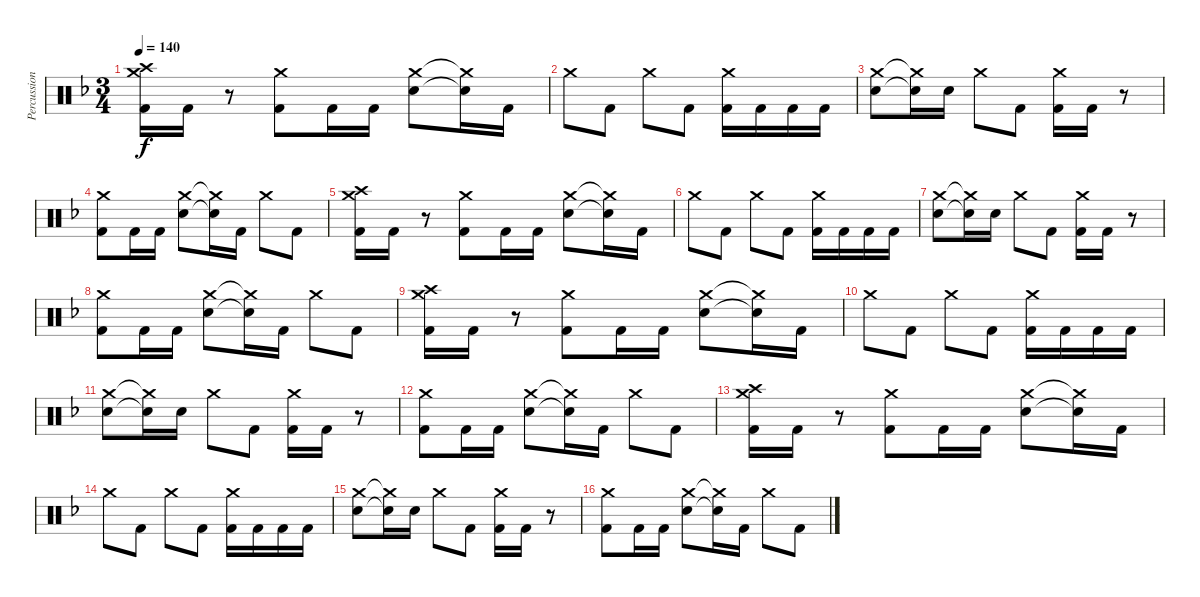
\track ("Percussion" "Percussion") {instrument percussion}
\staff {score}
\articulation defaults
\ts (3 4)
\tempo 140
\clef neutral
\ks f
("Crash medium (hit)" "Crash high (hit)" "Kick (hit) 2").16{dy f} "Kick (hit) 2".16 r.8 ("Crash medium (hit)" "Kick (hit) 2").8 "Kick (hit) 2".16 "Kick (hit) 2".16 ("Crash medium (hit)" "Electric Snare (hit)").8 ("Crash medium (hit)"{t} "Electric Snare (hit)"{t}).16 "Kick (hit) 2".16 |
"Crash medium (hit)".8 "Kick (hit) 2".8 "Crash medium (hit)".8 "Kick (hit) 2".8 ("Crash medium (hit)" "Kick (hit) 2").16 "Kick (hit) 2".16 "Kick (hit) 2".16 "Kick (hit) 2".16 |
("Crash medium (hit)" "Electric Snare (hit)").8 ("Crash medium (hit)"{t} "Electric Snare (hit)"{t}).16 "Electric Snare (hit)".16 "Crash medium (hit)".8 "Kick (hit) 2".8 ("Crash medium (hit)" "Kick (hit) 2").16 "Kick (hit) 2".16 r.8 |
("Crash medium (hit)" "Kick (hit) 2").8 "Kick (hit) 2".16 "Kick (hit) 2".16 ("Crash medium (hit)" "Electric Snare (hit)").8 ("Crash medium (hit)"{t} "Electric Snare (hit)"{t}).16 "Kick (hit) 2".16 "Crash medium (hit)".8 "Kick (hit) 2".8 |
("Crash medium (hit)" "Crash high (hit)" "Kick (hit) 2").16 "Kick (hit) 2".16 r.8 ("Crash medium (hit)" "Kick (hit) 2").8 "Kick (hit) 2".16 "Kick (hit) 2".16 ("Crash medium (hit)" "Electric Snare (hit)").8 ("Crash medium (hit)"{t} "Electric Snare (hit)"{t}).16 "Kick (hit) 2".16 |
"Crash medium (hit)".8 "Kick (hit) 2".8 "Crash medium (hit)".8 "Kick (hit) 2".8 ("Crash medium (hit)" "Kick (hit) 2").16 "Kick (hit) 2".16 "Kick (hit) 2".16 "Kick (hit) 2".16 |
("Crash medium (hit)" "Electric Snare (hit)").8 ("Crash medium (hit)"{t} "Electric Snare (hit)"{t}).16 "Electric Snare (hit)".16 "Crash medium (hit)".8 "Kick (hit) 2".8 ("Crash medium (hit)" "Kick (hit) 2").16 "Kick (hit) 2".16 r.8 |
("Crash medium (hit)" "Kick (hit) 2").8 "Kick (hit) 2".16 "Kick (hit) 2".16 ("Crash medium (hit)" "Electric Snare (hit)").8 ("Crash medium (hit)"{t} "Electric Snare (hit)"{t}).16 "Kick (hit) 2".16 "Crash medium (hit)".8 "Kick (hit) 2".8 |
("Crash medium (hit)" "Crash high (hit)" "Kick (hit) 2").16 "Kick (hit) 2".16 r.8 ("Crash medium (hit)" "Kick (hit) 2").8 "Kick (hit) 2".16 "Kick (hit) 2".16 ("Crash medium (hit)" "Electric Snare (hit)").8 ("Crash medium (hit)"{t} "Electric Snare (hit)"{t}).16 "Kick (hit) 2".16 |
"Crash medium (hit)".8 "Kick (hit) 2".8 "Crash medium (hit)".8 "Kick (hit) 2".8 ("Crash medium (hit)" "Kick (hit) 2").16 "Kick (hit) 2".16 "Kick (hit) 2".16 "Kick (hit) 2".16 |
("Crash medium (hit)" "Electric Snare (hit)").8 ("Crash medium (hit)"{t} "Electric Snare (hit)"{t}).16 "Electric Snare (hit)".16 "Crash medium (hit)".8 "Kick (hit) 2".8 ("Crash medium (hit)" "Kick (hit) 2").16 "Kick (hit) 2".16 r.8 |
("Crash medium (hit)" "Kick (hit) 2").8 "Kick (hit) 2".16 "Kick (hit) 2".16 ("Crash medium (hit)" "Electric Snare (hit)").8 ("Crash medium (hit)"{t} "Electric Snare (hit)"{t}).16 "Kick (hit) 2".16 "Crash medium (hit)".8 "Kick (hit) 2".8 |
("Crash medium (hit)" "Crash high (hit)" "Kick (hit) 2").16 "Kick (hit) 2".16 r.8 ("Crash medium (hit)" "Kick (hit) 2").8 "Kick (hit) 2".16 "Kick (hit) 2".16 ("Crash medium (hit)" "Electric Snare (hit)").8 ("Crash medium (hit)"{t} "Electric Snare (hit)"{t}).16 "Kick (hit) 2".16 |
"Crash medium (hit)".8 "Kick (hit) 2".8 "Crash medium (hit)".8 "Kick (hit) 2".8 ("Crash medium (hit)" "Kick (hit) 2").16 "Kick (hit) 2".16 "Kick (hit) 2".16 "Kick (hit) 2".16 |
("Crash medium (hit)" "Electric Snare (hit)").8 ("Crash medium (hit)"{t} "Electric Snare (hit)"{t}).16 "Electric Snare (hit)".16 "Crash medium (hit)".8 "Kick (hit) 2".8 ("Crash medium (hit)" "Kick (hit) 2").16 "Kick (hit) 2".16 r.8 |
("Crash medium (hit)" "Kick (hit) 2").8 "Kick (hit) 2".16 "Kick (hit) 2".16 ("Crash medium (hit)" "Electric Snare (hit)").8 ("Crash medium (hit)"{t} "Electric Snare (hit)"{t}).16 "Kick (hit) 2".16 "Crash medium (hit)".8 "Kick (hit) 2".8
